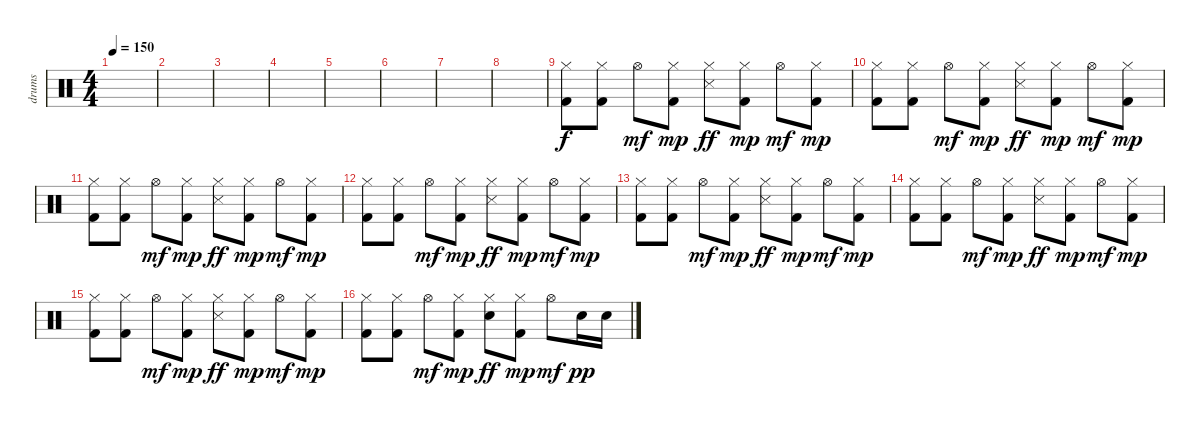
\track ("drums" "drums") {instrument percussion}
\staff {score}
\articulation defaults
\ts (4 4)
\tempo 150
\clef neutral
\ks c
|
|
|
|
|
|
|
|
("Hi-Hat (closed)" "Kick (hit) 2").8 ("Hi-Hat (closed)" "Kick (hit) 2").8 "Hi-Hat (open)".8{dy mf} ("Hi-Hat (closed)" "Kick (hit) 2").8{dy mp} ("Hi-Hat (closed)" "Snare (side stick) 3").8{dy ff} ("Hi-Hat (closed)" "Kick (hit) 2").8{dy mp} "Hi-Hat (open)".8{dy mf} ("Hi-Hat (closed)" "Kick (hit) 2").8{dy mp} |
("Hi-Hat (closed)" "Kick (hit) 2").8 ("Hi-Hat (closed)" "Kick (hit) 2").8 "Hi-Hat (open)".8{dy mf} ("Hi-Hat (closed)" "Kick (hit) 2").8{dy mp} ("Hi-Hat (closed)" "Snare (side stick) 3").8{dy ff} ("Hi-Hat (closed)" "Kick (hit) 2").8{dy mp} "Hi-Hat (open)".8{dy mf} ("Hi-Hat (closed)" "Kick (hit) 2").8{dy mp} |
("Hi-Hat (closed)" "Kick (hit) 2").8 ("Hi-Hat (closed)" "Kick (hit) 2").8 "Hi-Hat (open)".8{dy mf} ("Hi-Hat (closed)" "Kick (hit) 2").8{dy mp} ("Hi-Hat (closed)" "Snare (side stick) 3").8{dy ff} ("Hi-Hat (closed)" "Kick (hit) 2").8{dy mp} "Hi-Hat (open)".8{dy mf} ("Hi-Hat (closed)" "Kick (hit) 2").8{dy mp} |
("Hi-Hat (closed)" "Kick (hit) 2").8 ("Hi-Hat (closed)" "Kick (hit) 2").8 "Hi-Hat (open)".8{dy mf} ("Hi-Hat (closed)" "Kick (hit) 2").8{dy mp} ("Hi-Hat (closed)" "Snare (side stick) 3").8{dy ff} ("Hi-Hat (closed)" "Kick (hit) 2").8{dy mp} "Hi-Hat (open)".8{dy mf} ("Hi-Hat (closed)" "Kick (hit) 2").8{dy mp} |
("Hi-Hat (closed)" "Kick (hit) 2").8 ("Hi-Hat (closed)" "Kick (hit) 2").8 "Hi-Hat (open)".8{dy mf} ("Hi-Hat (closed)" "Kick (hit) 2").8{dy mp} ("Hi-Hat (closed)" "Snare (side stick) 3").8{dy ff} ("Hi-Hat (closed)" "Kick (hit) 2").8{dy mp} "Hi-Hat (open)".8{dy mf} ("Hi-Hat (closed)" "Kick (hit) 2").8{dy mp} |
("Hi-Hat (closed)" "Kick (hit) 2").8 ("Hi-Hat (closed)" "Kick (hit) 2").8 "Hi-Hat (open)".8{dy mf} ("Hi-Hat (closed)" "Kick (hit) 2").8{dy mp} ("Hi-Hat (closed)" "Snare (side stick) 3").8{dy ff} ("Hi-Hat (closed)" "Kick (hit) 2").8{dy mp} "Hi-Hat (open)".8{dy mf} ("Hi-Hat (closed)" "Kick (hit) 2").8{dy mp} |
("Hi-Hat (closed)" "Kick (hit) 2").8 ("Hi-Hat (closed)" "Kick (hit) 2").8 "Hi-Hat (open)".8{dy mf} ("Hi-Hat (closed)" "Kick (hit) 2").8{dy mp} ("Hi-Hat (closed)" "Snare (side stick) 3").8{dy ff} ("Hi-Hat (closed)" "Kick (hit) 2").8{dy mp} "Hi-Hat (open)".8{dy mf} ("Hi-Hat (closed)" "Kick (hit) 2").8{dy mp} |
("Hi-Hat (closed)" "Kick (hit) 2").8 ("Hi-Hat (closed)" "Kick (hit) 2").8 "Hi-Hat (open)".8{dy mf} ("Hi-Hat (closed)" "Kick (hit) 2").8{dy mp} ("Hi-Hat (closed)" "Electric Snare (hit)").8{dy ff} ("Hi-Hat (closed)" "Kick (hit) 2").8{dy mp} "Hi-Hat (open)".8{dy mf} "Electric Snare (hit)".16{dy pp} "Electric Snare (hit)".16
